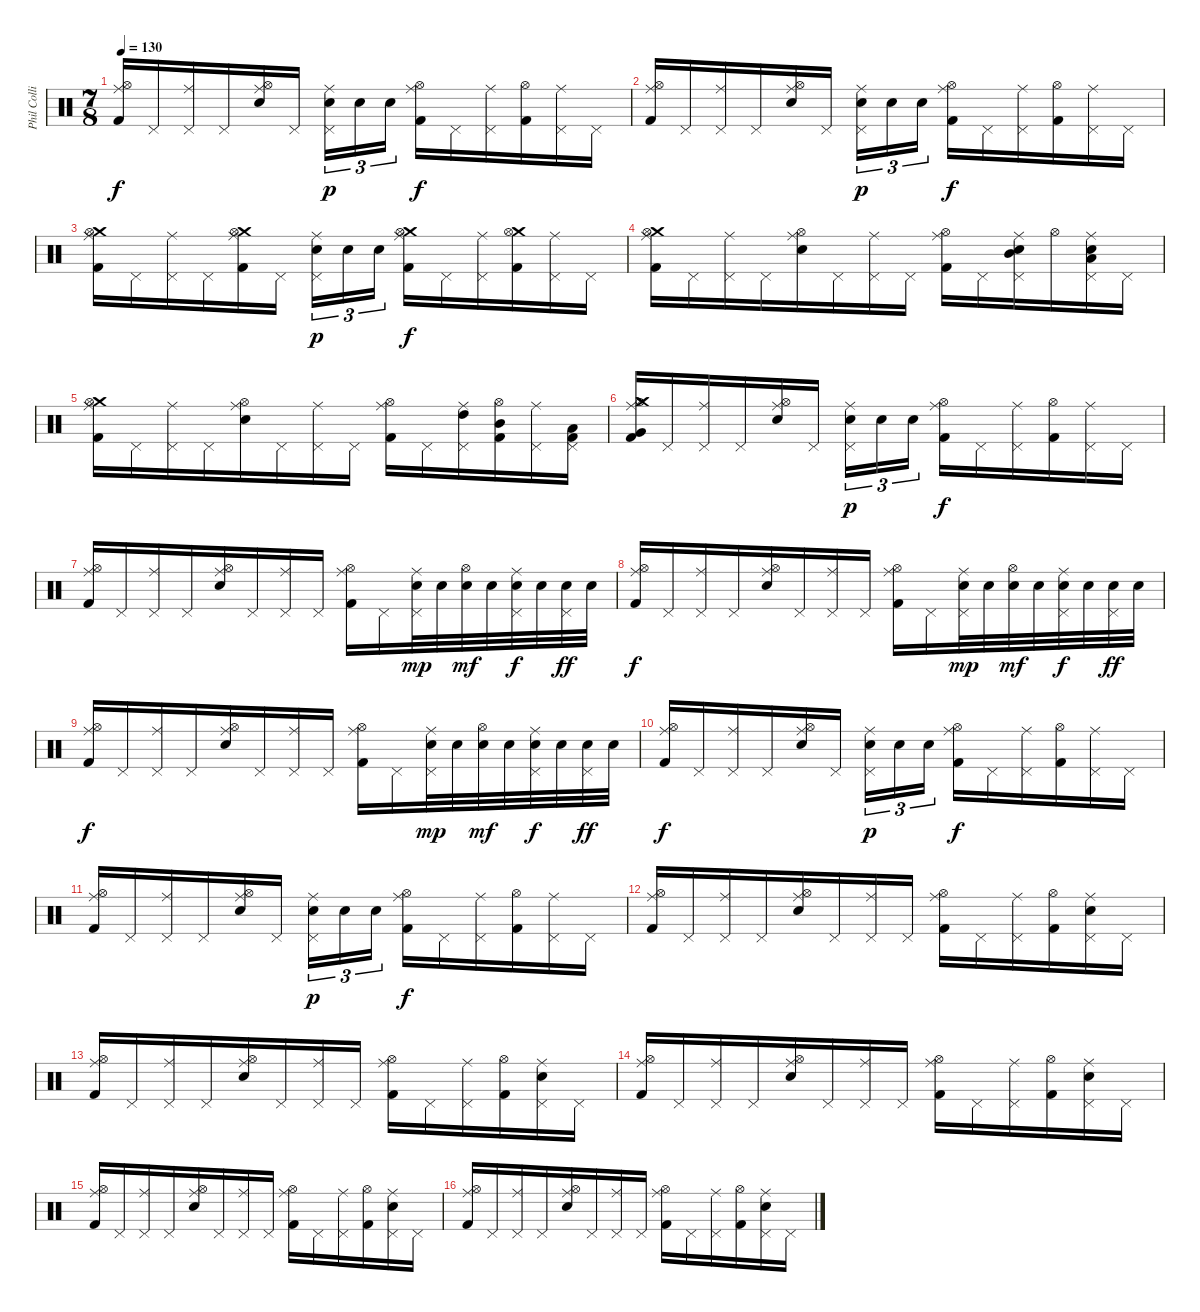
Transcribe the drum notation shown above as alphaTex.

\track ("Phil Collins (drums)" "Phil Colli") {instrument percussion}
\staff {score}
\articulation defaults
\ts (7 8)
\tempo 130
\clef neutral
\ks c
("Ride (middle)" "Hi-Hat (open)" "Kick (hit) 2").16{dy f} "Pedal Hi-Hat (hit)".16 ("Ride (middle)" "Pedal Hi-Hat (hit)").16 "Pedal Hi-Hat (hit)".16 ("Ride (middle)" "Hi-Hat (open)" "Electric Snare (hit)").16 "Pedal Hi-Hat (hit)".16 ("Ride (middle)" "Pedal Hi-Hat (hit)" "Electric Snare (hit)").16{tu (3 2) dy p} "Electric Snare (hit)".16{tu (3 2)} "Electric Snare (hit)".16{tu (3 2)} ("Ride (middle)" "Hi-Hat (open)" "Kick (hit) 2").16{dy f} "Pedal Hi-Hat (hit)".16 ("Ride (middle)" "Pedal Hi-Hat (hit)").16 ("Hi-Hat (open)" "Kick (hit) 2").16 ("Ride (middle)" "Pedal Hi-Hat (hit)").16 "Pedal Hi-Hat (hit)".16 |
("Ride (middle)" "Hi-Hat (open)" "Kick (hit) 2").16 "Pedal Hi-Hat (hit)".16 ("Ride (middle)" "Pedal Hi-Hat (hit)").16 "Pedal Hi-Hat (hit)".16 ("Ride (middle)" "Hi-Hat (open)" "Electric Snare (hit)").16 "Pedal Hi-Hat (hit)".16 ("Ride (middle)" "Pedal Hi-Hat (hit)" "Electric Snare (hit)").16{tu (3 2) dy p} "Electric Snare (hit)".16{tu (3 2)} "Electric Snare (hit)".16{tu (3 2)} ("Ride (middle)" "Hi-Hat (open)" "Kick (hit) 2").16{dy f} "Pedal Hi-Hat (hit)".16 ("Ride (middle)" "Pedal Hi-Hat (hit)").16 ("Hi-Hat (open)" "Kick (hit) 2").16 ("Ride (middle)" "Pedal Hi-Hat (hit)").16 "Pedal Hi-Hat (hit)".16 |
("Crash medium (hit)" "Ride (middle)" "Hi-Hat (open)" "Kick (hit) 2").16 "Pedal Hi-Hat (hit)".16 ("Ride (middle)" "Pedal Hi-Hat (hit)").16 "Pedal Hi-Hat (hit)".16 ("Crash medium (hit)" "Ride (middle)" "Hi-Hat (open)" "Kick (hit) 2").16 "Pedal Hi-Hat (hit)".16 ("Ride (middle)" "Pedal Hi-Hat (hit)" "Electric Snare (hit)").16{tu (3 2) dy p} "Electric Snare (hit)".16{tu (3 2)} "Electric Snare (hit)".16{tu (3 2)} ("Crash medium (hit)" "Ride (middle)" "Hi-Hat (open)" "Kick (hit) 2").16{dy f} "Pedal Hi-Hat (hit)".16 ("Ride (middle)" "Pedal Hi-Hat (hit)").16 ("Crash medium (hit)" "Hi-Hat (open)" "Kick (hit) 2").16 ("Ride (middle)" "Pedal Hi-Hat (hit)").16 "Pedal Hi-Hat (hit)".16 |
("Crash medium (hit)" "Ride (middle)" "Hi-Hat (open)" "Kick (hit) 2").16 "Pedal Hi-Hat (hit)".16 ("Ride (middle)" "Pedal Hi-Hat (hit)").16 "Pedal Hi-Hat (hit)".16 ("Ride (middle)" "Hi-Hat (open)" "Electric Snare (hit)").16 "Pedal Hi-Hat (hit)".16 ("Ride (middle)" "Pedal Hi-Hat (hit)").16 "Pedal Hi-Hat (hit)".16 ("Ride (middle)" "Hi-Hat (open)" "Kick (hit) 2").16 "Pedal Hi-Hat (hit)".16 ("Mid Tom (hit)" "Ride (middle)" "Pedal Hi-Hat (hit)" "Electric Snare (hit)").16 "Hi-Hat (open)".16 ("Low Tom (hit)" "Ride (middle)" "Pedal Hi-Hat (hit)" "Electric Snare (hit)").16 "Pedal Hi-Hat (hit)".16 |
("Crash medium (hit)" "Ride (middle)" "Hi-Hat (open)" "Kick (hit) 2").16 "Pedal Hi-Hat (hit)".16 ("Ride (middle)" "Pedal Hi-Hat (hit)").16 "Pedal Hi-Hat (hit)".16 ("Ride (middle)" "Hi-Hat (open)" "Electric Snare (hit)").16 "Pedal Hi-Hat (hit)".16 ("Ride (middle)" "Pedal Hi-Hat (hit)").16 "Pedal Hi-Hat (hit)".16 ("Ride (middle)" "Hi-Hat (open)" "Kick (hit) 2").16 "Pedal Hi-Hat (hit)".16 ("High Tom (hit)" "Ride (middle)" "Pedal Hi-Hat (hit)").16 ("Mid Tom (hit)" "Hi-Hat (open)" "Kick (hit) 2").16 ("Ride (middle)" "Pedal Hi-Hat (hit)").16 ("Low Tom (hit)" "Pedal Hi-Hat (hit)" "Kick (hit) 2").16 |
("Very Low Tom (hit)" "Crash medium (hit)" "Ride (middle)" "Hi-Hat (open)" "Kick (hit) 2").16 "Pedal Hi-Hat (hit)".16 ("Ride (middle)" "Pedal Hi-Hat (hit)").16 "Pedal Hi-Hat (hit)".16 ("Ride (middle)" "Hi-Hat (open)" "Electric Snare (hit)").16 "Pedal Hi-Hat (hit)".16 ("Ride (middle)" "Pedal Hi-Hat (hit)" "Electric Snare (hit)").16{tu (3 2) dy p} "Electric Snare (hit)".16{tu (3 2)} "Electric Snare (hit)".16{tu (3 2)} ("Ride (middle)" "Hi-Hat (open)" "Kick (hit) 2").16{dy f} "Pedal Hi-Hat (hit)".16 ("Ride (middle)" "Pedal Hi-Hat (hit)").16 ("Hi-Hat (open)" "Kick (hit) 2").16 ("Ride (middle)" "Pedal Hi-Hat (hit)").16 "Pedal Hi-Hat (hit)".16 |
("Ride (middle)" "Hi-Hat (open)" "Kick (hit) 2").16 "Pedal Hi-Hat (hit)".16 ("Ride (middle)" "Pedal Hi-Hat (hit)").16 "Pedal Hi-Hat (hit)".16 ("Ride (middle)" "Hi-Hat (open)" "Electric Snare (hit)").16 "Pedal Hi-Hat (hit)".16 ("Ride (middle)" "Pedal Hi-Hat (hit)").16 "Pedal Hi-Hat (hit)".16 ("Ride (middle)" "Hi-Hat (open)" "Kick (hit) 2").16 "Pedal Hi-Hat (hit)".16 ("Ride (middle)" "Pedal Hi-Hat (hit)" "Electric Snare (hit)").32{dy mp} "Electric Snare (hit)".32 ("Hi-Hat (open)" "Electric Snare (hit)").32{dy mf} "Electric Snare (hit)".32 ("Ride (middle)" "Pedal Hi-Hat (hit)" "Electric Snare (hit)").32{dy f} "Electric Snare (hit)".32 ("Pedal Hi-Hat (hit)" "Electric Snare (hit)").32{dy ff} "Electric Snare (hit)".32 |
("Ride (middle)" "Hi-Hat (open)" "Kick (hit) 2").16{dy f} "Pedal Hi-Hat (hit)".16 ("Ride (middle)" "Pedal Hi-Hat (hit)").16 "Pedal Hi-Hat (hit)".16 ("Ride (middle)" "Hi-Hat (open)" "Electric Snare (hit)").16 "Pedal Hi-Hat (hit)".16 ("Ride (middle)" "Pedal Hi-Hat (hit)").16 "Pedal Hi-Hat (hit)".16 ("Ride (middle)" "Hi-Hat (open)" "Kick (hit) 2").16 "Pedal Hi-Hat (hit)".16 ("Ride (middle)" "Pedal Hi-Hat (hit)" "Electric Snare (hit)").32{dy mp} "Electric Snare (hit)".32 ("Hi-Hat (open)" "Electric Snare (hit)").32{dy mf} "Electric Snare (hit)".32 ("Ride (middle)" "Pedal Hi-Hat (hit)" "Electric Snare (hit)").32{dy f} "Electric Snare (hit)".32 ("Pedal Hi-Hat (hit)" "Electric Snare (hit)").32{dy ff} "Electric Snare (hit)".32 |
("Ride (middle)" "Hi-Hat (open)" "Kick (hit) 2").16{dy f} "Pedal Hi-Hat (hit)".16 ("Ride (middle)" "Pedal Hi-Hat (hit)").16 "Pedal Hi-Hat (hit)".16 ("Ride (middle)" "Hi-Hat (open)" "Electric Snare (hit)").16 "Pedal Hi-Hat (hit)".16 ("Ride (middle)" "Pedal Hi-Hat (hit)").16 "Pedal Hi-Hat (hit)".16 ("Ride (middle)" "Hi-Hat (open)" "Kick (hit) 2").16 "Pedal Hi-Hat (hit)".16 ("Ride (middle)" "Pedal Hi-Hat (hit)" "Electric Snare (hit)").32{dy mp} "Electric Snare (hit)".32 ("Hi-Hat (open)" "Electric Snare (hit)").32{dy mf} "Electric Snare (hit)".32 ("Ride (middle)" "Pedal Hi-Hat (hit)" "Electric Snare (hit)").32{dy f} "Electric Snare (hit)".32 ("Pedal Hi-Hat (hit)" "Electric Snare (hit)").32{dy ff} "Electric Snare (hit)".32 |
("Ride (middle)" "Hi-Hat (open)" "Kick (hit) 2").16{dy f} "Pedal Hi-Hat (hit)".16 ("Ride (middle)" "Pedal Hi-Hat (hit)").16 "Pedal Hi-Hat (hit)".16 ("Ride (middle)" "Hi-Hat (open)" "Electric Snare (hit)").16 "Pedal Hi-Hat (hit)".16 ("Ride (middle)" "Pedal Hi-Hat (hit)" "Electric Snare (hit)").16{tu (3 2) dy p} "Electric Snare (hit)".16{tu (3 2)} "Electric Snare (hit)".16{tu (3 2)} ("Ride (middle)" "Hi-Hat (open)" "Kick (hit) 2").16{dy f} "Pedal Hi-Hat (hit)".16 ("Ride (middle)" "Pedal Hi-Hat (hit)").16 ("Hi-Hat (open)" "Kick (hit) 2").16 ("Ride (middle)" "Pedal Hi-Hat (hit)").16 "Pedal Hi-Hat (hit)".16 |
("Ride (middle)" "Hi-Hat (open)" "Kick (hit) 2").16 "Pedal Hi-Hat (hit)".16 ("Ride (middle)" "Pedal Hi-Hat (hit)").16 "Pedal Hi-Hat (hit)".16 ("Ride (middle)" "Hi-Hat (open)" "Electric Snare (hit)").16 "Pedal Hi-Hat (hit)".16 ("Ride (middle)" "Pedal Hi-Hat (hit)" "Electric Snare (hit)").16{tu (3 2) dy p} "Electric Snare (hit)".16{tu (3 2)} "Electric Snare (hit)".16{tu (3 2)} ("Ride (middle)" "Hi-Hat (open)" "Kick (hit) 2").16{dy f} "Pedal Hi-Hat (hit)".16 ("Ride (middle)" "Pedal Hi-Hat (hit)").16 ("Hi-Hat (open)" "Kick (hit) 2").16 ("Ride (middle)" "Pedal Hi-Hat (hit)").16 "Pedal Hi-Hat (hit)".16 |
("Ride (middle)" "Hi-Hat (open)" "Kick (hit) 2").16 "Pedal Hi-Hat (hit)".16 ("Ride (middle)" "Pedal Hi-Hat (hit)").16 "Pedal Hi-Hat (hit)".16 ("Ride (middle)" "Hi-Hat (open)" "Electric Snare (hit)").16 "Pedal Hi-Hat (hit)".16 ("Ride (middle)" "Pedal Hi-Hat (hit)").16 "Pedal Hi-Hat (hit)".16 ("Ride (middle)" "Hi-Hat (open)" "Kick (hit) 2").16 "Pedal Hi-Hat (hit)".16 ("Ride (middle)" "Pedal Hi-Hat (hit)").16 ("Hi-Hat (open)" "Kick (hit) 2").16 ("Ride (middle)" "Pedal Hi-Hat (hit)" "Electric Snare (hit)").16 "Pedal Hi-Hat (hit)".16 |
("Ride (middle)" "Hi-Hat (open)" "Kick (hit) 2").16 "Pedal Hi-Hat (hit)".16 ("Ride (middle)" "Pedal Hi-Hat (hit)").16 "Pedal Hi-Hat (hit)".16 ("Ride (middle)" "Hi-Hat (open)" "Electric Snare (hit)").16 "Pedal Hi-Hat (hit)".16 ("Ride (middle)" "Pedal Hi-Hat (hit)").16 "Pedal Hi-Hat (hit)".16 ("Ride (middle)" "Hi-Hat (open)" "Kick (hit) 2").16 "Pedal Hi-Hat (hit)".16 ("Ride (middle)" "Pedal Hi-Hat (hit)").16 ("Hi-Hat (open)" "Kick (hit) 2").16 ("Ride (middle)" "Pedal Hi-Hat (hit)" "Electric Snare (hit)").16 "Pedal Hi-Hat (hit)".16 |
("Ride (middle)" "Hi-Hat (open)" "Kick (hit) 2").16 "Pedal Hi-Hat (hit)".16 ("Ride (middle)" "Pedal Hi-Hat (hit)").16 "Pedal Hi-Hat (hit)".16 ("Ride (middle)" "Hi-Hat (open)" "Electric Snare (hit)").16 "Pedal Hi-Hat (hit)".16 ("Ride (middle)" "Pedal Hi-Hat (hit)").16 "Pedal Hi-Hat (hit)".16 ("Ride (middle)" "Hi-Hat (open)" "Kick (hit) 2").16 "Pedal Hi-Hat (hit)".16 ("Ride (middle)" "Pedal Hi-Hat (hit)").16 ("Hi-Hat (open)" "Kick (hit) 2").16 ("Ride (middle)" "Pedal Hi-Hat (hit)" "Electric Snare (hit)").16 "Pedal Hi-Hat (hit)".16 |
("Ride (middle)" "Hi-Hat (open)" "Kick (hit) 2").16 "Pedal Hi-Hat (hit)".16 ("Ride (middle)" "Pedal Hi-Hat (hit)").16 "Pedal Hi-Hat (hit)".16 ("Ride (middle)" "Hi-Hat (open)" "Electric Snare (hit)").16 "Pedal Hi-Hat (hit)".16 ("Ride (middle)" "Pedal Hi-Hat (hit)").16 "Pedal Hi-Hat (hit)".16 ("Ride (middle)" "Hi-Hat (open)" "Kick (hit) 2").16 "Pedal Hi-Hat (hit)".16 ("Ride (middle)" "Pedal Hi-Hat (hit)").16 ("Hi-Hat (open)" "Kick (hit) 2").16 ("Ride (middle)" "Pedal Hi-Hat (hit)" "Electric Snare (hit)").16 "Pedal Hi-Hat (hit)".16 |
("Ride (middle)" "Hi-Hat (open)" "Kick (hit) 2").16 "Pedal Hi-Hat (hit)".16 ("Ride (middle)" "Pedal Hi-Hat (hit)").16 "Pedal Hi-Hat (hit)".16 ("Ride (middle)" "Hi-Hat (open)" "Electric Snare (hit)").16 "Pedal Hi-Hat (hit)".16 ("Ride (middle)" "Pedal Hi-Hat (hit)").16 "Pedal Hi-Hat (hit)".16 ("Ride (middle)" "Hi-Hat (open)" "Kick (hit) 2").16 "Pedal Hi-Hat (hit)".16 ("Ride (middle)" "Pedal Hi-Hat (hit)").16 ("Hi-Hat (open)" "Kick (hit) 2").16 ("Ride (middle)" "Pedal Hi-Hat (hit)" "Electric Snare (hit)").16 "Pedal Hi-Hat (hit)".16
